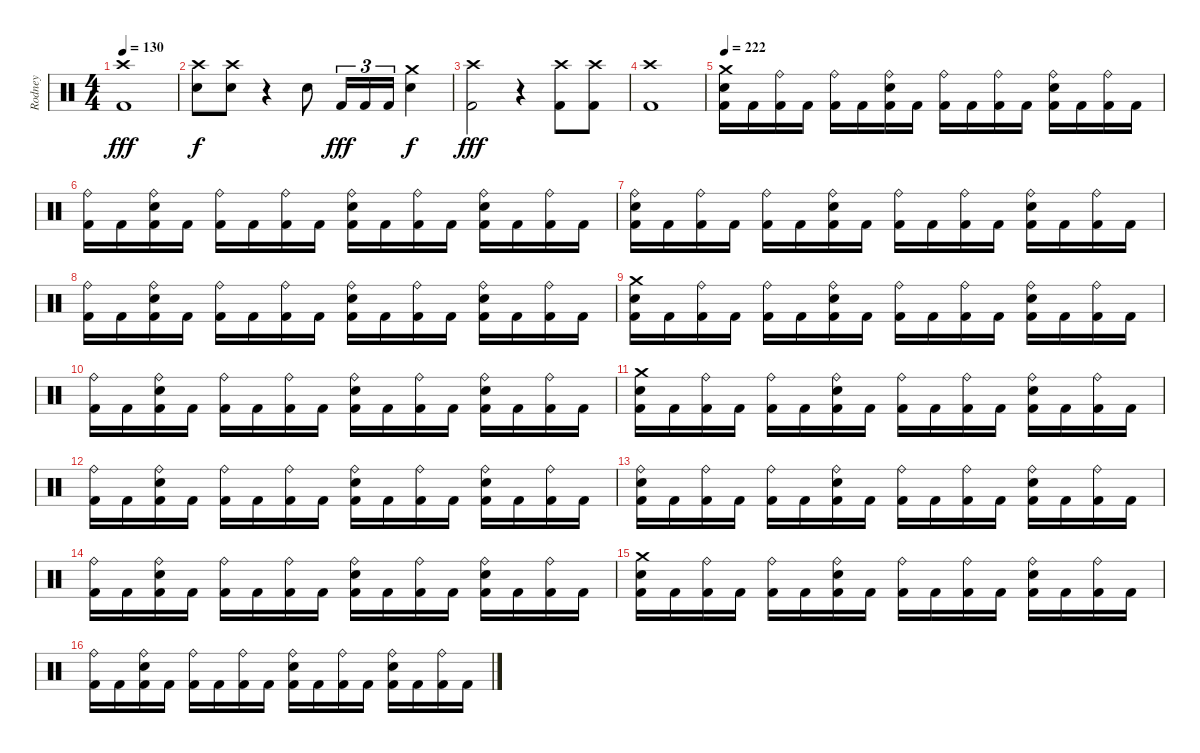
\track ("Rodney" "Rodney") {instrument percussion}
\staff {score}
\articulation defaults
\ts (4 4)
\tempo 130
\clef neutral
\ks c
("Crash high (hit)" "Kick (hit) 2").1{dy fff volume 16} |
("Crash high (hit)" "Snare (hit) 2").8{dy f} ("Crash high (hit)" "Snare (hit) 2").8 r.4 "Snare (hit) 2".8 "Kick (hit) 2".16{tu (3 2) dy fff} "Kick (hit) 2".16{tu (3 2)} "Kick (hit) 2".16{tu (3 2)} ("Crash medium (hit)" "Snare (hit) 2").4{dy f} |
("Crash high (hit)" "Kick (hit) 2").2{dy fff} r.4 ("Crash high (hit)" "Kick (hit) 2").8 ("Crash high (hit)" "Kick (hit) 2").8 |
("Crash high (hit)" "Kick (hit) 2").1 |
\tempo 222
("Crash medium (hit)" "Snare (hit) 2" "Kick (hit) 2").16 "Kick (hit) 2".16 ("Ride (bell)" "Kick (hit) 2").16 "Kick (hit) 2".16 ("Ride (bell)" "Kick (hit) 2").16 "Kick (hit) 2".16 ("Ride (bell)" "Snare (hit) 2" "Kick (hit) 2").16 "Kick (hit) 2".16 ("Ride (bell)" "Kick (hit) 2").16 "Kick (hit) 2".16 ("Ride (bell)" "Kick (hit) 2").16 "Kick (hit) 2".16 ("Ride (bell)" "Snare (hit) 2" "Kick (hit) 2").16 "Kick (hit) 2".16 ("Ride (bell)" "Kick (hit) 2").16 "Kick (hit) 2".16 |
("Ride (bell)" "Kick (hit) 2").16 "Kick (hit) 2".16 ("Ride (bell)" "Snare (hit) 2" "Kick (hit) 2").16 "Kick (hit) 2".16 ("Ride (bell)" "Kick (hit) 2").16 "Kick (hit) 2".16 ("Ride (bell)" "Kick (hit) 2").16 "Kick (hit) 2".16 ("Ride (bell)" "Snare (hit) 2" "Kick (hit) 2").16 "Kick (hit) 2".16 ("Ride (bell)" "Kick (hit) 2").16 "Kick (hit) 2".16 ("Ride (bell)" "Snare (hit) 2" "Kick (hit) 2").16 "Kick (hit) 2".16 ("Ride (bell)" "Kick (hit) 2").16 "Kick (hit) 2".16 |
("Ride (bell)" "Snare (hit) 2" "Kick (hit) 2").16 "Kick (hit) 2".16 ("Ride (bell)" "Kick (hit) 2").16 "Kick (hit) 2".16 ("Ride (bell)" "Kick (hit) 2").16 "Kick (hit) 2".16 ("Ride (bell)" "Snare (hit) 2" "Kick (hit) 2").16 "Kick (hit) 2".16 ("Ride (bell)" "Kick (hit) 2").16 "Kick (hit) 2".16 ("Ride (bell)" "Kick (hit) 2").16 "Kick (hit) 2".16 ("Ride (bell)" "Snare (hit) 2" "Kick (hit) 2").16 "Kick (hit) 2".16 ("Ride (bell)" "Kick (hit) 2").16 "Kick (hit) 2".16 |
("Ride (bell)" "Kick (hit) 2").16 "Kick (hit) 2".16 ("Ride (bell)" "Snare (hit) 2" "Kick (hit) 2").16 "Kick (hit) 2".16 ("Ride (bell)" "Kick (hit) 2").16 "Kick (hit) 2".16 ("Ride (bell)" "Kick (hit) 2").16 "Kick (hit) 2".16 ("Ride (bell)" "Snare (hit) 2" "Kick (hit) 2").16 "Kick (hit) 2".16 ("Ride (bell)" "Kick (hit) 2").16 "Kick (hit) 2".16 ("Ride (bell)" "Snare (hit) 2" "Kick (hit) 2").16 "Kick (hit) 2".16 ("Ride (bell)" "Kick (hit) 2").16 "Kick (hit) 2".16 |
("Crash medium (hit)" "Snare (hit) 2" "Kick (hit) 2").16 "Kick (hit) 2".16 ("Ride (bell)" "Kick (hit) 2").16 "Kick (hit) 2".16 ("Ride (bell)" "Kick (hit) 2").16 "Kick (hit) 2".16 ("Ride (bell)" "Snare (hit) 2" "Kick (hit) 2").16 "Kick (hit) 2".16 ("Ride (bell)" "Kick (hit) 2").16 "Kick (hit) 2".16 ("Ride (bell)" "Kick (hit) 2").16 "Kick (hit) 2".16 ("Ride (bell)" "Snare (hit) 2" "Kick (hit) 2").16 "Kick (hit) 2".16 ("Ride (bell)" "Kick (hit) 2").16 "Kick (hit) 2".16 |
("Ride (bell)" "Kick (hit) 2").16 "Kick (hit) 2".16 ("Ride (bell)" "Snare (hit) 2" "Kick (hit) 2").16 "Kick (hit) 2".16 ("Ride (bell)" "Kick (hit) 2").16 "Kick (hit) 2".16 ("Ride (bell)" "Kick (hit) 2").16 "Kick (hit) 2".16 ("Ride (bell)" "Snare (hit) 2" "Kick (hit) 2").16 "Kick (hit) 2".16 ("Ride (bell)" "Kick (hit) 2").16 "Kick (hit) 2".16 ("Ride (bell)" "Snare (hit) 2" "Kick (hit) 2").16 "Kick (hit) 2".16 ("Ride (bell)" "Kick (hit) 2").16 "Kick (hit) 2".16 |
("Crash medium (hit)" "Snare (hit) 2" "Kick (hit) 2").16 "Kick (hit) 2".16 ("Ride (bell)" "Kick (hit) 2").16 "Kick (hit) 2".16 ("Ride (bell)" "Kick (hit) 2").16 "Kick (hit) 2".16 ("Ride (bell)" "Snare (hit) 2" "Kick (hit) 2").16 "Kick (hit) 2".16 ("Ride (bell)" "Kick (hit) 2").16 "Kick (hit) 2".16 ("Ride (bell)" "Kick (hit) 2").16 "Kick (hit) 2".16 ("Ride (bell)" "Snare (hit) 2" "Kick (hit) 2").16 "Kick (hit) 2".16 ("Ride (bell)" "Kick (hit) 2").16 "Kick (hit) 2".16 |
("Ride (bell)" "Kick (hit) 2").16 "Kick (hit) 2".16 ("Ride (bell)" "Snare (hit) 2" "Kick (hit) 2").16 "Kick (hit) 2".16 ("Ride (bell)" "Kick (hit) 2").16 "Kick (hit) 2".16 ("Ride (bell)" "Kick (hit) 2").16 "Kick (hit) 2".16 ("Ride (bell)" "Snare (hit) 2" "Kick (hit) 2").16 "Kick (hit) 2".16 ("Ride (bell)" "Kick (hit) 2").16 "Kick (hit) 2".16 ("Ride (bell)" "Snare (hit) 2" "Kick (hit) 2").16 "Kick (hit) 2".16 ("Ride (bell)" "Kick (hit) 2").16 "Kick (hit) 2".16 |
("Ride (bell)" "Snare (hit) 2" "Kick (hit) 2").16 "Kick (hit) 2".16 ("Ride (bell)" "Kick (hit) 2").16 "Kick (hit) 2".16 ("Ride (bell)" "Kick (hit) 2").16 "Kick (hit) 2".16 ("Ride (bell)" "Snare (hit) 2" "Kick (hit) 2").16 "Kick (hit) 2".16 ("Ride (bell)" "Kick (hit) 2").16 "Kick (hit) 2".16 ("Ride (bell)" "Kick (hit) 2").16 "Kick (hit) 2".16 ("Ride (bell)" "Snare (hit) 2" "Kick (hit) 2").16 "Kick (hit) 2".16 ("Ride (bell)" "Kick (hit) 2").16 "Kick (hit) 2".16 |
("Ride (bell)" "Kick (hit) 2").16 "Kick (hit) 2".16 ("Ride (bell)" "Snare (hit) 2" "Kick (hit) 2").16 "Kick (hit) 2".16 ("Ride (bell)" "Kick (hit) 2").16 "Kick (hit) 2".16 ("Ride (bell)" "Kick (hit) 2").16 "Kick (hit) 2".16 ("Ride (bell)" "Snare (hit) 2" "Kick (hit) 2").16 "Kick (hit) 2".16 ("Ride (bell)" "Kick (hit) 2").16 "Kick (hit) 2".16 ("Ride (bell)" "Snare (hit) 2" "Kick (hit) 2").16 "Kick (hit) 2".16 ("Ride (bell)" "Kick (hit) 2").16 "Kick (hit) 2".16 |
("Crash medium (hit)" "Snare (hit) 2" "Kick (hit) 2").16 "Kick (hit) 2".16 ("Ride (bell)" "Kick (hit) 2").16 "Kick (hit) 2".16 ("Ride (bell)" "Kick (hit) 2").16 "Kick (hit) 2".16 ("Ride (bell)" "Snare (hit) 2" "Kick (hit) 2").16 "Kick (hit) 2".16 ("Ride (bell)" "Kick (hit) 2").16 "Kick (hit) 2".16 ("Ride (bell)" "Kick (hit) 2").16 "Kick (hit) 2".16 ("Ride (bell)" "Snare (hit) 2" "Kick (hit) 2").16 "Kick (hit) 2".16 ("Ride (bell)" "Kick (hit) 2").16 "Kick (hit) 2".16 |
("Ride (bell)" "Kick (hit) 2").16 "Kick (hit) 2".16 ("Ride (bell)" "Snare (hit) 2" "Kick (hit) 2").16 "Kick (hit) 2".16 ("Ride (bell)" "Kick (hit) 2").16 "Kick (hit) 2".16 ("Ride (bell)" "Kick (hit) 2").16 "Kick (hit) 2".16 ("Ride (bell)" "Snare (hit) 2" "Kick (hit) 2").16 "Kick (hit) 2".16 ("Ride (bell)" "Kick (hit) 2").16 "Kick (hit) 2".16 ("Ride (bell)" "Snare (hit) 2" "Kick (hit) 2").16 "Kick (hit) 2".16 ("Ride (bell)" "Kick (hit) 2").16 "Kick (hit) 2".16
